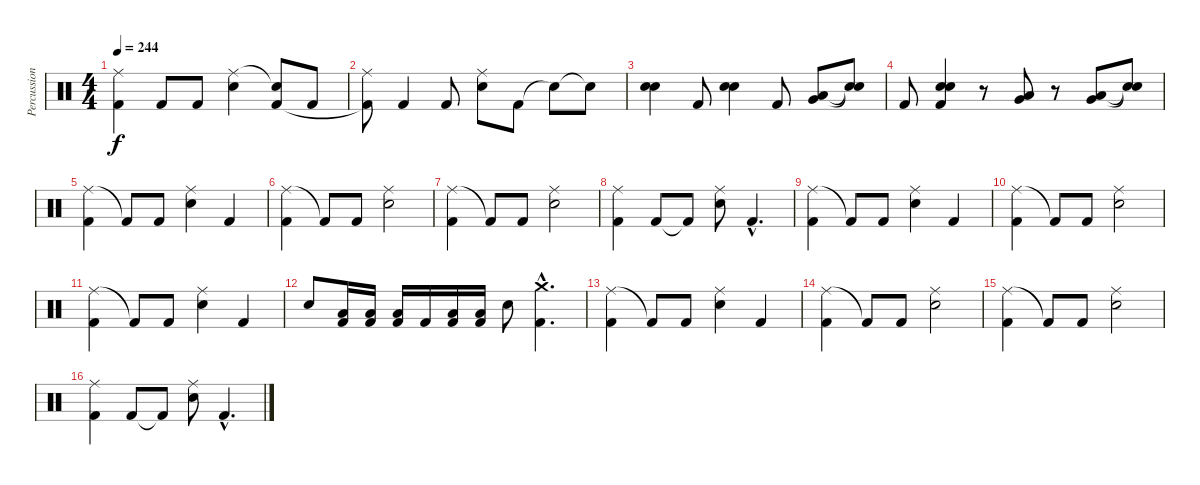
\track ("Percussions" "Percussion") {instrument percussion}
\staff {score}
\articulation defaults
\ts (4 4)
\tempo 244
\clef neutral
\ks c
("Ride (middle)" "Kick (hit) 2").4{dy f} "Kick (hit) 2".8 "Kick (hit) 2".8 ("Ride (middle)" "Electric Snare (hit)").4 ("Snare (hit)"{t} "Kick (hit) 2").8 "Kick (hit) 2".8 |
("Ride (middle)" "Kick (hit) 2"{t}).8 "Kick (hit) 2".4 "Kick (hit) 2".8 ("Ride (middle)" "Electric Snare (hit)").8 "Kick (hit) 2".8 "Snare (hit)"{t}.8 "Snare (hit)"{t}.8 |
("Electric Snare (hit)" "Electric Snare (hit)").4 "Kick (hit) 2".8 ("Electric Snare (hit)" "Electric Snare (hit)").4 "Kick (hit) 2".8 ("Low Tom (hit)" "Very Low Tom (hit)").8 ("Snare (hit)"{t} "Snare (hit)"{t}).8 |
"Kick (hit) 2".8 ("Electric Snare (hit)" "Electric Snare (hit)" "Kick (hit) 2").4 r.8 ("Very Low Tom (hit)" "Low Tom (hit)").8 r.8 ("Very Low Tom (hit)" "Low Floor Tom (hit)").8 ("Snare (hit)"{t} "Snare (hit)"{t}).8 |
("Ride (middle)" "Kick (hit) 2").4 "Kick (hit) 2"{t}.8 "Kick (hit) 2".8 ("Ride (middle)" "Electric Snare (hit)").4 "Kick (hit) 2".4 |
("Ride (middle)" "Kick (hit) 2").4 "Kick (hit) 2"{t}.8 "Kick (hit) 2".8 ("Ride (middle)" "Electric Snare (hit)").2 |
("Ride (middle)" "Kick (hit) 2").4 "Kick (hit) 2"{t}.8 "Kick (hit) 2".8 ("Ride (middle)" "Electric Snare (hit)").2 |
("Ride (middle)" "Kick (hit) 2").4 "Kick (hit) 2".8 "Kick (hit) 2"{t}.8 ("Ride (middle)" "Electric Snare (hit)").8 "Kick (hit) 2"{hac}.4{d} |
("Ride (middle)" "Kick (hit) 2").4 "Kick (hit) 2"{t}.8 "Kick (hit) 2".8 ("Ride (middle)" "Electric Snare (hit)").4 "Kick (hit) 2".4 |
("Ride (middle)" "Kick (hit) 2").4 "Kick (hit) 2"{t}.8 "Kick (hit) 2".8 ("Ride (middle)" "Electric Snare (hit)").2 |
("Ride (middle)" "Kick (hit) 2").4 "Kick (hit) 2"{t}.8 "Kick (hit) 2".8 ("Ride (middle)" "Electric Snare (hit)").4 "Kick (hit) 2".4 |
"Electric Snare (hit)".8 ("Low Floor Tom (hit)" "Kick (hit) 2").16 ("Low Floor Tom (hit)" "Kick (hit) 2").16 ("Low Floor Tom (hit)" "Kick (hit) 2").16 "Kick (hit) 2".16 ("Low Floor Tom (hit)" "Kick (hit) 2").16 ("Low Floor Tom (hit)" "Kick (hit) 2").16 "Electric Snare (hit)".8 ("Crash medium (hit)"{hac} "Kick (hit) 2"{hac}).4{d} |
("Ride (middle)" "Kick (hit) 2").4 "Kick (hit) 2"{t}.8 "Kick (hit) 2".8 ("Ride (middle)" "Electric Snare (hit)").4 "Kick (hit) 2".4 |
("Ride (middle)" "Kick (hit) 2").4 "Kick (hit) 2"{t}.8 "Kick (hit) 2".8 ("Ride (middle)" "Electric Snare (hit)").2 |
("Ride (middle)" "Kick (hit) 2").4 "Kick (hit) 2"{t}.8 "Kick (hit) 2".8 ("Ride (middle)" "Electric Snare (hit)").2 |
("Ride (middle)" "Kick (hit) 2").4 "Kick (hit) 2".8 "Kick (hit) 2"{t}.8 ("Ride (middle)" "Electric Snare (hit)").8 "Kick (hit) 2"{hac}.4{d}
